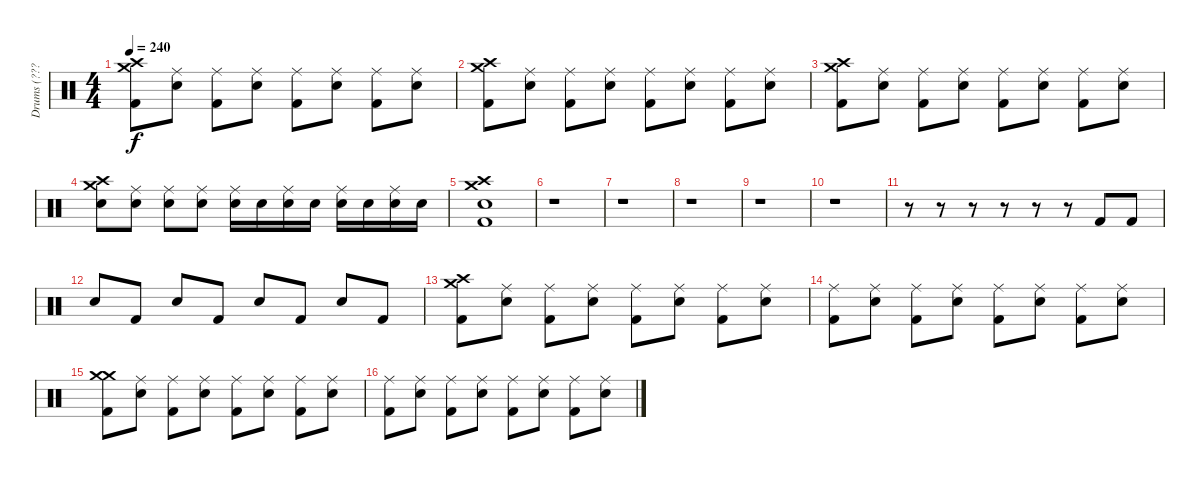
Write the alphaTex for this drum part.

\track ("Drums (????)" "Drums (???") {instrument percussion}
\staff {score}
\articulation defaults
\ts (4 4)
\tempo 240
\clef neutral
\ks c
("Crash medium (hit)" "Crash high (hit)" "Kick (hit) 2").8{dy f} ("Ride (middle)" "Snare (hit) 2").8 ("Ride (middle)" "Kick (hit) 2").8 ("Ride (middle)" "Snare (hit) 2").8 ("Ride (middle)" "Kick (hit) 2").8 ("Ride (middle)" "Snare (hit) 2").8 ("Ride (middle)" "Kick (hit) 2").8 ("Ride (middle)" "Snare (hit) 2").8 |
("Crash medium (hit)" "Crash high (hit)" "Kick (hit) 2").8 ("Ride (middle)" "Snare (hit) 2").8 ("Ride (middle)" "Kick (hit) 2").8 ("Ride (middle)" "Snare (hit) 2").8 ("Ride (middle)" "Kick (hit) 2").8 ("Ride (middle)" "Snare (hit) 2").8 ("Ride (middle)" "Kick (hit) 2").8 ("Ride (middle)" "Snare (hit) 2").8 |
("Crash medium (hit)" "Crash high (hit)" "Kick (hit) 2").8 ("Ride (middle)" "Snare (hit) 2").8 ("Ride (middle)" "Kick (hit) 2").8 ("Ride (middle)" "Snare (hit) 2").8 ("Ride (middle)" "Kick (hit) 2").8 ("Ride (middle)" "Snare (hit) 2").8 ("Ride (middle)" "Kick (hit) 2").8 ("Ride (middle)" "Snare (hit) 2").8 |
("Crash medium (hit)" "Crash high (hit)" "Snare (hit) 2").8 ("Ride (middle)" "Snare (hit) 2").8 ("Ride (middle)" "Snare (hit) 2").8 ("Ride (middle)" "Snare (hit) 2").8 ("Ride (middle)" "Snare (hit) 2").16 "Snare (hit) 2".16 ("Ride (middle)" "Snare (hit) 2").16 "Snare (hit) 2".16 ("Ride (middle)" "Snare (hit) 2").16 "Snare (hit) 2".16 ("Ride (middle)" "Snare (hit) 2").16 "Snare (hit) 2".16 |
("Snare (hit) 2" "Kick (hit) 2" "Crash high (hit)" "Crash medium (hit)").1 |
r.1 |
r.1 |
r.1 |
r.1 |
r.1 |
r.8 r.8 r.8 r.8 r.8 r.8 "Kick (hit) 2".8 "Kick (hit) 2".8 |
"Snare (hit) 2".8 "Kick (hit) 2".8 "Snare (hit) 2".8 "Kick (hit) 2".8 "Snare (hit) 2".8 "Kick (hit) 2".8 "Snare (hit) 2".8 "Kick (hit) 2".8 |
("Crash medium (hit)" "Crash high (hit)" "Kick (hit) 2").8 ("Ride (middle)" "Snare (hit) 2").8 ("Ride (middle)" "Kick (hit) 2").8 ("Ride (middle)" "Snare (hit) 2").8 ("Ride (middle)" "Kick (hit) 2").8 ("Ride (middle)" "Snare (hit) 2").8 ("Ride (middle)" "Kick (hit) 2").8 ("Ride (middle)" "Snare (hit) 2").8 |
("Ride (middle)" "Kick (hit) 2").8 ("Ride (middle)" "Snare (hit) 2").8 ("Ride (middle)" "Kick (hit) 2").8 ("Ride (middle)" "Snare (hit) 2").8 ("Ride (middle)" "Kick (hit) 2").8 ("Ride (middle)" "Snare (hit) 2").8 ("Ride (middle)" "Kick (hit) 2").8 ("Ride (middle)" "Snare (hit) 2").8 |
("Crash medium (hit)" "Crash medium (hit)" "Kick (hit) 2").8 ("Ride (middle)" "Snare (hit) 2").8 ("Ride (middle)" "Kick (hit) 2").8 ("Ride (middle)" "Snare (hit) 2").8 ("Ride (middle)" "Kick (hit) 2").8 ("Ride (middle)" "Snare (hit) 2").8 ("Ride (middle)" "Kick (hit) 2").8 ("Ride (middle)" "Snare (hit) 2").8 |
("Ride (middle)" "Kick (hit) 2").8 ("Ride (middle)" "Snare (hit) 2").8 ("Ride (middle)" "Kick (hit) 2").8 ("Ride (middle)" "Snare (hit) 2").8 ("Ride (middle)" "Kick (hit) 2").8 ("Ride (middle)" "Snare (hit) 2").8 ("Ride (middle)" "Kick (hit) 2").8 ("Ride (middle)" "Snare (hit) 2").8
